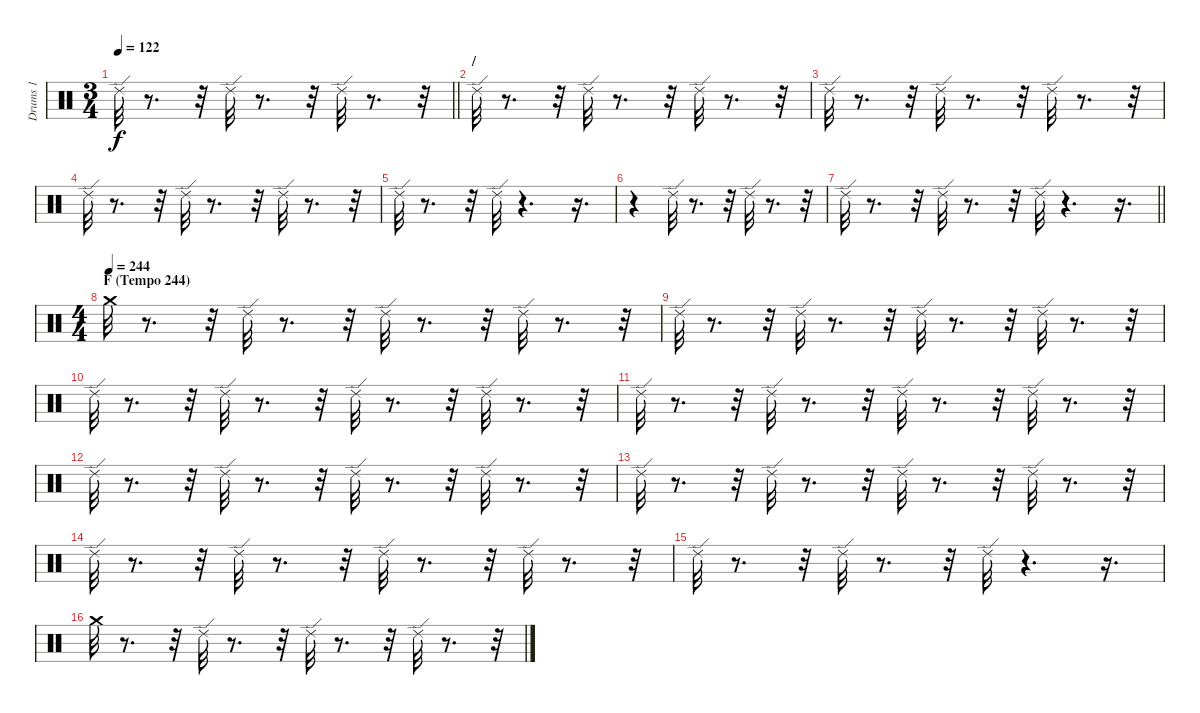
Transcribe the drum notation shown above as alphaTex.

\track ("Drums 1" "Drums 1") {instrument percussion}
\staff {score}
\articulation defaults
\ts (3 4)
\tempo 122
\clef neutral
\barLineRight lightlight
\ks c "Ride (edge) 2".32{dy f}
r.8{d} r.32 "Ride (edge) 2".32 r.8{d} r.32 "Ride (edge) 2".32 r.8{d} r.32 |
\section ("" "/")
"Ride (edge) 2".32 r.8{d} r.32 "Ride (edge) 2".32 r.8{d} r.32 "Ride (edge) 2".32 r.8{d} r.32 |
"Ride (edge) 2".32 r.8{d} r.32 "Ride (edge) 2".32 r.8{d} r.32 "Ride (edge) 2".32 r.8{d} r.32 |
"Ride (edge) 2".32 r.8{d} r.32 "Ride (edge) 2".32 r.8{d} r.32 "Ride (edge) 2".32 r.8{d} r.32 |
"Ride (edge) 2".32 r.8{d} r.32 "Ride (edge) 2".32 r.4{d} r.16{d} |
r.4 "Ride (edge) 2".32 r.8{d} r.32 "Ride (edge) 2".32 r.8{d} r.32 |
\barLineRight lightlight "Ride (edge) 2".32
r.8{d} r.32 "Ride (edge) 2".32 r.8{d} r.32 "Ride (edge) 2".32 r.4{d} r.16{d} |
\ts (4 4)
\section ("" "F (Tempo 244)")
\tempo (244)
"Crash medium (hit)".32 r.8{d} r.32 "Ride (edge) 2".32 r.8{d} r.32 "Ride (edge) 2".32 r.8{d} r.32 "Ride (edge) 2".32 r.8{d} r.32 |
"Ride (edge) 2".32 r.8{d} r.32 "Ride (edge) 2".32 r.8{d} r.32 "Ride (edge) 2".32 r.8{d} r.32 "Ride (edge) 2".32 r.8{d} r.32 |
"Ride (edge) 2".32 r.8{d} r.32 "Ride (edge) 2".32 r.8{d} r.32 "Ride (edge) 2".32 r.8{d} r.32 "Ride (edge) 2".32 r.8{d} r.32 |
"Ride (edge) 2".32 r.8{d} r.32 "Ride (edge) 2".32 r.8{d} r.32 "Ride (edge) 2".32 r.8{d} r.32 "Ride (edge) 2".32 r.8{d} r.32 |
"Ride (edge) 2".32 r.8{d} r.32 "Ride (edge) 2".32 r.8{d} r.32 "Ride (edge) 2".32 r.8{d} r.32 "Ride (edge) 2".32 r.8{d} r.32 |
"Ride (edge) 2".32 r.8{d} r.32 "Ride (edge) 2".32 r.8{d} r.32 "Ride (edge) 2".32 r.8{d} r.32 "Ride (edge) 2".32 r.8{d} r.32 |
"Ride (edge) 2".32 r.8{d} r.32 "Ride (edge) 2".32 r.8{d} r.32 "Ride (edge) 2".32 r.8{d} r.32 "Ride (edge) 2".32 r.8{d} r.32 |
"Ride (edge) 2".32 r.8{d} r.32 "Ride (edge) 2".32 r.8{d} r.32 "Ride (edge) 2".32 r.4{d} r.16{d} |
"Crash medium (hit)".32 r.8{d} r.32 "Ride (edge) 2".32 r.8{d} r.32 "Ride (edge) 2".32 r.8{d} r.32 "Ride (edge) 2".32 r.8{d} r.32
